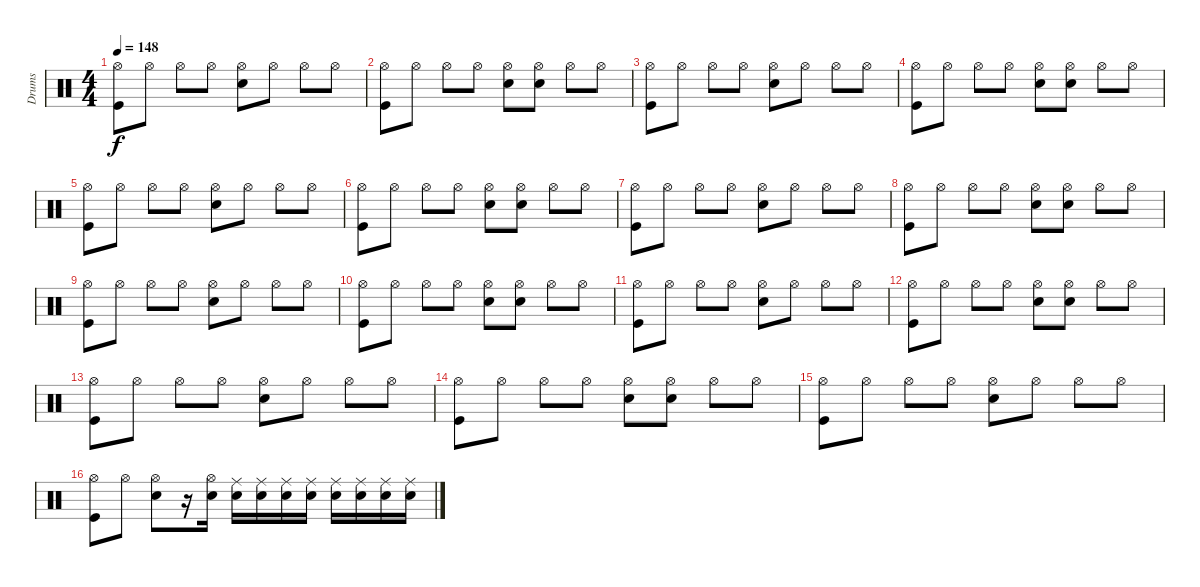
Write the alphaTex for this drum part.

\track ("Drums" "Drums") {instrument percussion}
\staff {score}
\articulation defaults
\ts (4 4)
\tempo 148
\clef neutral
\ks c
("Hi-Hat (open)" "Kick (hit)").8{dy f} "Hi-Hat (open)".8 "Hi-Hat (open)".8 "Hi-Hat (open)".8 ("Snare (hit) 2" "Hi-Hat (open)").8 "Hi-Hat (open)".8 "Hi-Hat (open)".8 "Hi-Hat (open)".8 |
("Kick (hit)" "Hi-Hat (open)").8 "Hi-Hat (open)".8 "Hi-Hat (open)".8 "Hi-Hat (open)".8 ("Snare (hit) 2" "Hi-Hat (open)").8 ("Hi-Hat (open)" "Snare (hit) 2").8 "Hi-Hat (open)".8 "Hi-Hat (open)".8 |
("Kick (hit)" "Hi-Hat (open)").8 "Hi-Hat (open)".8 "Hi-Hat (open)".8 "Hi-Hat (open)".8 ("Snare (hit) 2" "Hi-Hat (open)").8 "Hi-Hat (open)".8 "Hi-Hat (open)".8 "Hi-Hat (open)".8 |
("Kick (hit)" "Hi-Hat (open)").8 "Hi-Hat (open)".8 "Hi-Hat (open)".8 "Hi-Hat (open)".8 ("Snare (hit) 2" "Hi-Hat (open)").8 ("Hi-Hat (open)" "Snare (hit) 2").8 "Hi-Hat (open)".8 "Hi-Hat (open)".8 |
("Hi-Hat (open)" "Kick (hit)").8 "Hi-Hat (open)".8 "Hi-Hat (open)".8 "Hi-Hat (open)".8 ("Snare (hit) 2" "Hi-Hat (open)").8 "Hi-Hat (open)".8 "Hi-Hat (open)".8 "Hi-Hat (open)".8 |
("Kick (hit)" "Hi-Hat (open)").8 "Hi-Hat (open)".8 "Hi-Hat (open)".8 "Hi-Hat (open)".8 ("Snare (hit) 2" "Hi-Hat (open)").8 ("Hi-Hat (open)" "Snare (hit) 2").8 "Hi-Hat (open)".8 "Hi-Hat (open)".8 |
("Kick (hit)" "Hi-Hat (open)").8 "Hi-Hat (open)".8 "Hi-Hat (open)".8 "Hi-Hat (open)".8 ("Snare (hit) 2" "Hi-Hat (open)").8 "Hi-Hat (open)".8 "Hi-Hat (open)".8 "Hi-Hat (open)".8 |
("Kick (hit)" "Hi-Hat (open)").8 "Hi-Hat (open)".8 "Hi-Hat (open)".8 "Hi-Hat (open)".8 ("Snare (hit) 2" "Hi-Hat (open)").8 ("Hi-Hat (open)" "Snare (hit) 2").8 "Hi-Hat (open)".8 "Hi-Hat (open)".8 |
("Hi-Hat (open)" "Kick (hit)").8 "Hi-Hat (open)".8 "Hi-Hat (open)".8 "Hi-Hat (open)".8 ("Snare (hit) 2" "Hi-Hat (open)").8 "Hi-Hat (open)".8 "Hi-Hat (open)".8 "Hi-Hat (open)".8 |
("Kick (hit)" "Hi-Hat (open)").8 "Hi-Hat (open)".8 "Hi-Hat (open)".8 "Hi-Hat (open)".8 ("Snare (hit) 2" "Hi-Hat (open)").8 ("Hi-Hat (open)" "Snare (hit) 2").8 "Hi-Hat (open)".8 "Hi-Hat (open)".8 |
("Kick (hit)" "Hi-Hat (open)").8 "Hi-Hat (open)".8 "Hi-Hat (open)".8 "Hi-Hat (open)".8 ("Snare (hit) 2" "Hi-Hat (open)").8 "Hi-Hat (open)".8 "Hi-Hat (open)".8 "Hi-Hat (open)".8 |
("Kick (hit)" "Hi-Hat (open)").8 "Hi-Hat (open)".8 "Hi-Hat (open)".8 "Hi-Hat (open)".8 ("Snare (hit) 2" "Hi-Hat (open)").8 ("Hi-Hat (open)" "Snare (hit) 2").8 "Hi-Hat (open)".8 "Hi-Hat (open)".8 |
("Hi-Hat (open)" "Kick (hit)").8 "Hi-Hat (open)".8 "Hi-Hat (open)".8 "Hi-Hat (open)".8 ("Snare (hit) 2" "Hi-Hat (open)").8 "Hi-Hat (open)".8 "Hi-Hat (open)".8 "Hi-Hat (open)".8 |
("Kick (hit)" "Hi-Hat (open)").8 "Hi-Hat (open)".8 "Hi-Hat (open)".8 "Hi-Hat (open)".8 ("Snare (hit) 2" "Hi-Hat (open)").8 ("Hi-Hat (open)" "Snare (hit) 2").8 "Hi-Hat (open)".8 "Hi-Hat (open)".8 |
("Kick (hit)" "Hi-Hat (open)").8 "Hi-Hat (open)".8 "Hi-Hat (open)".8 "Hi-Hat (open)".8 ("Snare (hit) 2" "Hi-Hat (open)").8 "Hi-Hat (open)".8 "Hi-Hat (open)".8 "Hi-Hat (open)".8 |
("Kick (hit)" "Hi-Hat (open)").8 "Hi-Hat (open)".8 ("Snare (hit) 2" "Hi-Hat (open)").8 r.16 ("Snare (hit) 2" "Hi-Hat (open)").16 ("Snare (hit) 2" "Ride (middle)").16 ("Snare (hit) 2" "Ride (middle)").16 ("Snare (hit) 2" "Ride (middle)").16 ("Snare (hit) 2" "Ride (middle)").16 ("Snare (hit) 2" "Ride (middle)").16 ("Snare (hit) 2" "Ride (middle)").16 ("Snare (hit) 2" "Ride (middle)").16 ("Snare (hit) 2" "Ride (middle)").16
